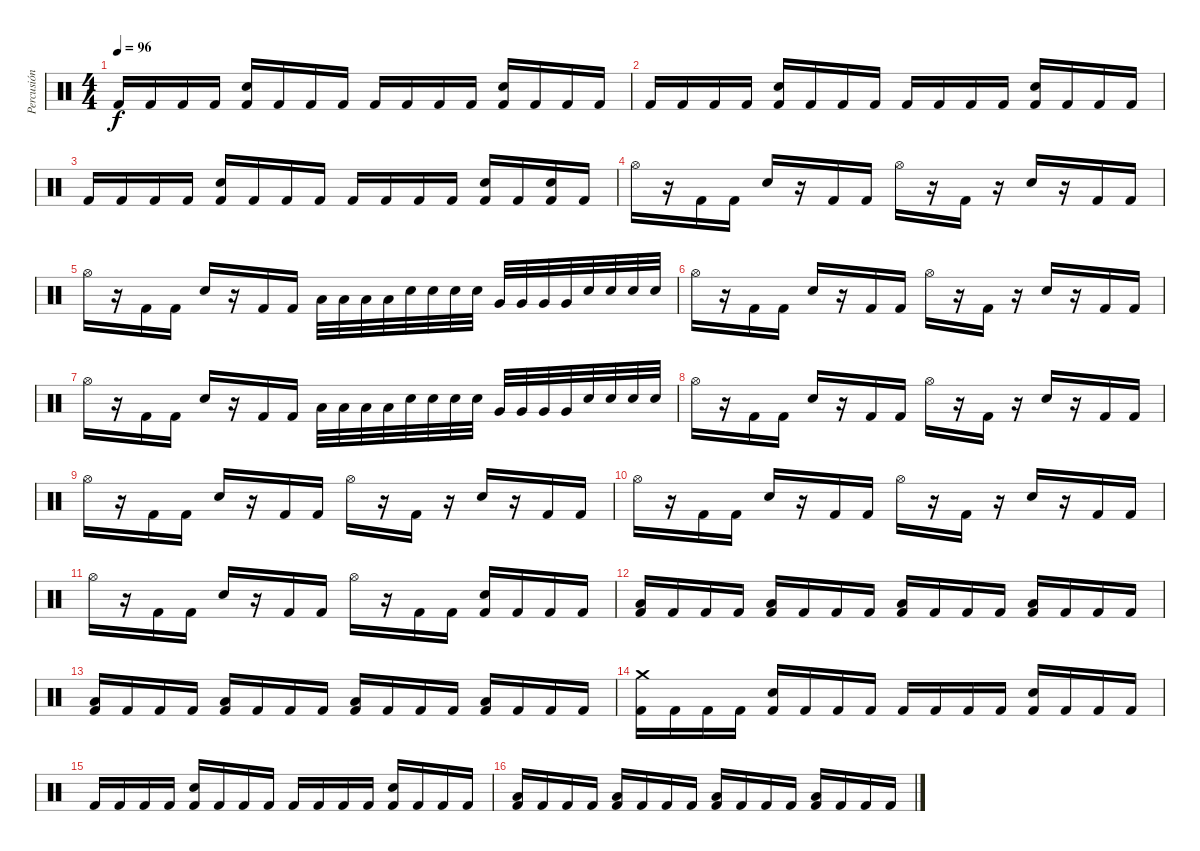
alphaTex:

\track ("Percusión" "Percusión") {instrument percussion}
\staff {score}
\articulation defaults
\ts (4 4)
\tempo 96
\clef neutral
\ks c "Kick (hit) 2".16{dy f} "Kick (hit) 2".16 "Kick (hit) 2".16 "Kick (hit) 2".16
("Kick (hit) 2" "Snare (hit) 2").16 "Kick (hit) 2".16 "Kick (hit) 2".16 "Kick (hit) 2".16 "Kick (hit) 2".16 "Kick (hit) 2".16 "Kick (hit) 2".16 "Kick (hit) 2".16 ("Kick (hit) 2" "Snare (hit) 2").16 "Kick (hit) 2".16 "Kick (hit) 2".16 "Kick (hit) 2".16 |
"Kick (hit) 2".16 "Kick (hit) 2".16 "Kick (hit) 2".16 "Kick (hit) 2".16 ("Kick (hit) 2" "Snare (hit) 2").16 "Kick (hit) 2".16 "Kick (hit) 2".16 "Kick (hit) 2".16 "Kick (hit) 2".16 "Kick (hit) 2".16 "Kick (hit) 2".16 "Kick (hit) 2".16 ("Kick (hit) 2" "Snare (hit) 2").16 "Kick (hit) 2".16 "Kick (hit) 2".16 "Kick (hit) 2".16 |
"Kick (hit) 2".16 "Kick (hit) 2".16 "Kick (hit) 2".16 "Kick (hit) 2".16 ("Kick (hit) 2" "Snare (hit) 2").16 "Kick (hit) 2".16 "Kick (hit) 2".16 "Kick (hit) 2".16 "Kick (hit) 2".16 "Kick (hit) 2".16 "Kick (hit) 2".16 "Kick (hit) 2".16 ("Kick (hit) 2" "Snare (hit) 2").16 "Kick (hit) 2".16 ("Kick (hit) 2" "Snare (hit) 2").16 "Kick (hit) 2".16 |
"Hi-Hat (open)".16 r.16 "Kick (hit) 2".16 "Kick (hit) 2".16 "Snare (hit) 2".16 r.16 "Kick (hit) 2".16 "Kick (hit) 2".16 "Hi-Hat (open)".16 r.16 "Kick (hit) 2".16 r.16 "Snare (hit) 2".16 r.16 "Kick (hit) 2".16 "Kick (hit) 2".16 |
"Hi-Hat (open)".16 r.16 "Kick (hit) 2".16 "Kick (hit) 2".16 "Snare (hit) 2".16 r.16 "Kick (hit) 2".16 "Kick (hit) 2".16 "Low Tom (hit)".32 "Low Tom (hit)".32 "Low Tom (hit)".32 "Low Tom (hit)".32 "Snare (hit) 2".32 "Snare (hit) 2".32 "Snare (hit) 2".32 "Snare (hit) 2".32 "Very Low Tom (hit)".32 "Very Low Tom (hit)".32 "Very Low Tom (hit)".32 "Very Low Tom (hit)".32 "Snare (hit) 2".32 "Snare (hit) 2".32 "Snare (hit) 2".32 "Snare (hit) 2".32 |
"Hi-Hat (open)".16 r.16 "Kick (hit) 2".16 "Kick (hit) 2".16 "Snare (hit) 2".16 r.16 "Kick (hit) 2".16 "Kick (hit) 2".16 "Hi-Hat (open)".16 r.16 "Kick (hit) 2".16 r.16 "Snare (hit) 2".16 r.16 "Kick (hit) 2".16 "Kick (hit) 2".16 |
"Hi-Hat (open)".16 r.16 "Kick (hit) 2".16 "Kick (hit) 2".16 "Snare (hit) 2".16 r.16 "Kick (hit) 2".16 "Kick (hit) 2".16 "Low Tom (hit)".32 "Low Tom (hit)".32 "Low Tom (hit)".32 "Low Tom (hit)".32 "Snare (hit) 2".32 "Snare (hit) 2".32 "Snare (hit) 2".32 "Snare (hit) 2".32 "Very Low Tom (hit)".32 "Very Low Tom (hit)".32 "Very Low Tom (hit)".32 "Very Low Tom (hit)".32 "Snare (hit) 2".32 "Snare (hit) 2".32 "Snare (hit) 2".32 "Snare (hit) 2".32 |
"Hi-Hat (open)".16 r.16 "Kick (hit) 2".16 "Kick (hit) 2".16 "Snare (hit) 2".16 r.16 "Kick (hit) 2".16 "Kick (hit) 2".16 "Hi-Hat (open)".16 r.16 "Kick (hit) 2".16 r.16 "Snare (hit) 2".16 r.16 "Kick (hit) 2".16 "Kick (hit) 2".16 |
"Hi-Hat (open)".16 r.16 "Kick (hit) 2".16 "Kick (hit) 2".16 "Snare (hit) 2".16 r.16 "Kick (hit) 2".16 "Kick (hit) 2".16 "Hi-Hat (open)".16 r.16 "Kick (hit) 2".16 r.16 "Snare (hit) 2".16 r.16 "Kick (hit) 2".16 "Kick (hit) 2".16 |
"Hi-Hat (open)".16 r.16 "Kick (hit) 2".16 "Kick (hit) 2".16 "Snare (hit) 2".16 r.16 "Kick (hit) 2".16 "Kick (hit) 2".16 "Hi-Hat (open)".16 r.16 "Kick (hit) 2".16 r.16 "Snare (hit) 2".16 r.16 "Kick (hit) 2".16 "Kick (hit) 2".16 |
"Hi-Hat (open)".16 r.16 "Kick (hit) 2".16 "Kick (hit) 2".16 "Snare (hit) 2".16 r.16 "Kick (hit) 2".16 "Kick (hit) 2".16 "Hi-Hat (open)".16 r.16 "Kick (hit) 2".16 "Kick (hit) 2".16 ("Snare (hit) 2" "Kick (hit) 2").16 "Kick (hit) 2".16 "Kick (hit) 2".16 "Kick (hit) 2".16 |
("Kick (hit) 2" "Low Tom (hit)").16 "Kick (hit) 2".16 "Kick (hit) 2".16 "Kick (hit) 2".16 ("Kick (hit) 2" "Low Floor Tom (hit)").16 "Kick (hit) 2".16 "Kick (hit) 2".16 "Kick (hit) 2".16 ("Kick (hit) 2" "Low Tom (hit)").16 "Kick (hit) 2".16 "Kick (hit) 2".16 "Kick (hit) 2".16 ("Kick (hit) 2" "Low Floor Tom (hit)").16 "Kick (hit) 2".16 "Kick (hit) 2".16 "Kick (hit) 2".16 |
("Kick (hit) 2" "Low Tom (hit)").16 "Kick (hit) 2".16 "Kick (hit) 2".16 "Kick (hit) 2".16 ("Kick (hit) 2" "Low Floor Tom (hit)").16 "Kick (hit) 2".16 "Kick (hit) 2".16 "Kick (hit) 2".16 ("Kick (hit) 2" "Low Tom (hit)").16 "Kick (hit) 2".16 "Kick (hit) 2".16 "Kick (hit) 2".16 ("Kick (hit) 2" "Low Floor Tom (hit)").16 "Kick (hit) 2".16 "Kick (hit) 2".16 "Kick (hit) 2".16 |
("Kick (hit) 2" "Crash medium (hit)").16 "Kick (hit) 2".16 "Kick (hit) 2".16 "Kick (hit) 2".16 ("Kick (hit) 2" "Snare (hit) 2").16 "Kick (hit) 2".16 "Kick (hit) 2".16 "Kick (hit) 2".16 "Kick (hit) 2".16 "Kick (hit) 2".16 "Kick (hit) 2".16 "Kick (hit) 2".16 ("Kick (hit) 2" "Snare (hit) 2").16 "Kick (hit) 2".16 "Kick (hit) 2".16 "Kick (hit) 2".16 |
"Kick (hit) 2".16 "Kick (hit) 2".16 "Kick (hit) 2".16 "Kick (hit) 2".16 ("Kick (hit) 2" "Snare (hit) 2").16 "Kick (hit) 2".16 "Kick (hit) 2".16 "Kick (hit) 2".16 "Kick (hit) 2".16 "Kick (hit) 2".16 "Kick (hit) 2".16 "Kick (hit) 2".16 ("Kick (hit) 2" "Snare (hit) 2").16 "Kick (hit) 2".16 "Kick (hit) 2".16 "Kick (hit) 2".16 |
("Kick (hit) 2" "Low Tom (hit)").16 "Kick (hit) 2".16 "Kick (hit) 2".16 "Kick (hit) 2".16 ("Kick (hit) 2" "Low Floor Tom (hit)").16 "Kick (hit) 2".16 "Kick (hit) 2".16 "Kick (hit) 2".16 ("Kick (hit) 2" "Low Tom (hit)").16 "Kick (hit) 2".16 "Kick (hit) 2".16 "Kick (hit) 2".16 ("Kick (hit) 2" "Low Floor Tom (hit)").16 "Kick (hit) 2".16 "Kick (hit) 2".16 "Kick (hit) 2".16
